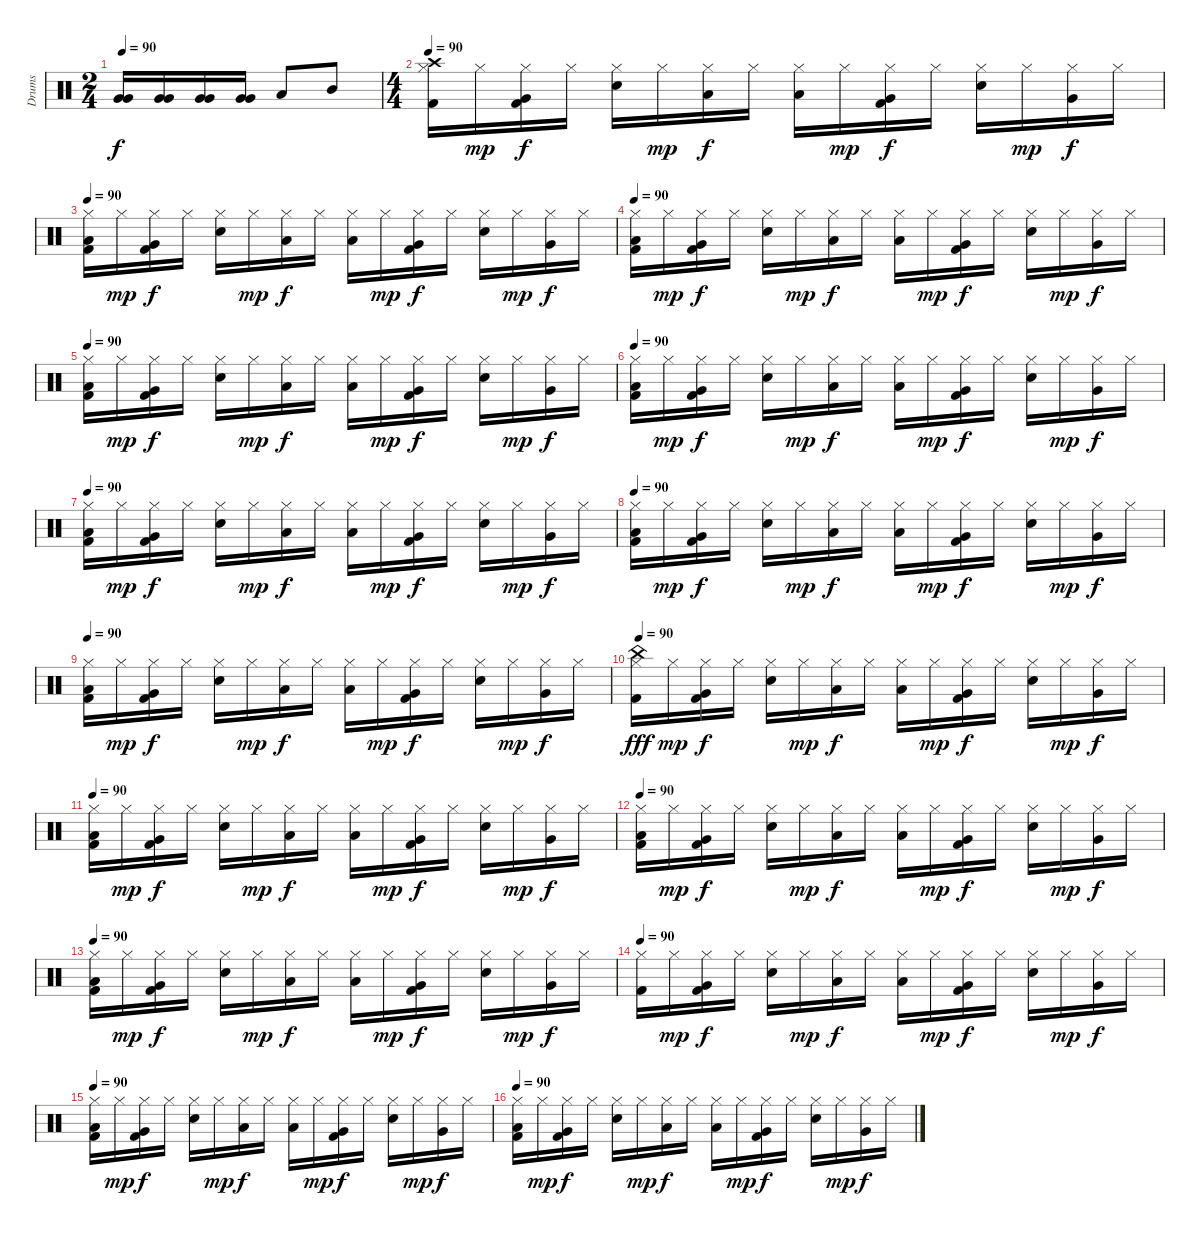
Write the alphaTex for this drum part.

\track ("Drums" "Drums") {instrument percussion}
\staff {score}
\articulation defaults
\ts (2 4)
\tempo 90
\clef neutral
\ks c
("Very Low Tom (hit)" "Very Low Tom (hit)").16{dy f} ("Very Low Tom (hit)" "Very Low Tom (hit)").16 ("Very Low Tom (hit)" "Very Low Tom (hit)").16 ("Very Low Tom (hit)" "Very Low Tom (hit)").16 "Low Tom (hit)".8 "Mid Tom (hit)".8 |
\ts (4 4)
\tempo 90
("Crash high (hit)" "Kick (hit) 2" "Hi-Hat (closed)").16 "Hi-Hat (closed)".16{dy mp} ("Very Low Tom (hit)" "Kick (hit) 2" "Hi-Hat (closed)").16{dy f} "Hi-Hat (closed)".16 ("Snare (hit) 2" "Hi-Hat (closed)").16 "Hi-Hat (closed)".16{dy mp} ("Low Tom (hit)" "Hi-Hat (closed)").16{dy f} "Hi-Hat (closed)".16 ("Low Tom (hit)" "Hi-Hat (closed)").16 "Hi-Hat (closed)".16{dy mp} ("Very Low Tom (hit)" "Kick (hit) 2" "Hi-Hat (closed)").16{dy f} "Hi-Hat (closed)".16 ("Snare (hit) 2" "Hi-Hat (closed)").16 "Hi-Hat (closed)".16{dy mp} ("Very Low Tom (hit)" "Hi-Hat (closed)").16{dy f} "Hi-Hat (closed)".16 |
\tempo 90
("Low Floor Tom (hit)" "Kick (hit) 2" "Hi-Hat (closed)").16 "Hi-Hat (closed)".16{dy mp} ("Very Low Tom (hit)" "Kick (hit) 2" "Hi-Hat (closed)").16{dy f} "Hi-Hat (closed)".16 ("Snare (hit) 2" "Hi-Hat (closed)").16 "Hi-Hat (closed)".16{dy mp} ("Low Tom (hit)" "Hi-Hat (closed)").16{dy f} "Hi-Hat (closed)".16 ("Low Tom (hit)" "Hi-Hat (closed)").16 "Hi-Hat (closed)".16{dy mp} ("Very Low Tom (hit)" "Kick (hit) 2" "Hi-Hat (closed)").16{dy f} "Hi-Hat (closed)".16 ("Snare (hit) 2" "Hi-Hat (closed)").16 "Hi-Hat (closed)".16{dy mp} ("Very Low Tom (hit)" "Hi-Hat (closed)").16{dy f} "Hi-Hat (closed)".16 |
\tempo 90
("Low Floor Tom (hit)" "Kick (hit) 2" "Hi-Hat (closed)").16 "Hi-Hat (closed)".16{dy mp} ("Very Low Tom (hit)" "Kick (hit) 2" "Hi-Hat (closed)").16{dy f} "Hi-Hat (closed)".16 ("Snare (hit) 2" "Hi-Hat (closed)").16 "Hi-Hat (closed)".16{dy mp} ("Low Tom (hit)" "Hi-Hat (closed)").16{dy f} "Hi-Hat (closed)".16 ("Low Tom (hit)" "Hi-Hat (closed)").16 "Hi-Hat (closed)".16{dy mp} ("Very Low Tom (hit)" "Kick (hit) 2" "Hi-Hat (closed)").16{dy f} "Hi-Hat (closed)".16 ("Snare (hit) 2" "Hi-Hat (closed)").16 "Hi-Hat (closed)".16{dy mp} ("Very Low Tom (hit)" "Hi-Hat (closed)").16{dy f} "Hi-Hat (closed)".16 |
\tempo 90
("Low Floor Tom (hit)" "Kick (hit) 2" "Hi-Hat (closed)").16 "Hi-Hat (closed)".16{dy mp} ("Very Low Tom (hit)" "Kick (hit) 2" "Hi-Hat (closed)").16{dy f} "Hi-Hat (closed)".16 ("Snare (hit) 2" "Hi-Hat (closed)").16 "Hi-Hat (closed)".16{dy mp} ("Low Tom (hit)" "Hi-Hat (closed)").16{dy f} "Hi-Hat (closed)".16 ("Low Tom (hit)" "Hi-Hat (closed)").16 "Hi-Hat (closed)".16{dy mp} ("Very Low Tom (hit)" "Kick (hit) 2" "Hi-Hat (closed)").16{dy f} "Hi-Hat (closed)".16 ("Snare (hit) 2" "Hi-Hat (closed)").16 "Hi-Hat (closed)".16{dy mp} ("Very Low Tom (hit)" "Hi-Hat (closed)").16{dy f} "Hi-Hat (closed)".16 |
\tempo 90
("Low Floor Tom (hit)" "Kick (hit) 2" "Hi-Hat (closed)").16 "Hi-Hat (closed)".16{dy mp} ("Very Low Tom (hit)" "Kick (hit) 2" "Hi-Hat (closed)").16{dy f} "Hi-Hat (closed)".16 ("Snare (hit) 2" "Hi-Hat (closed)").16 "Hi-Hat (closed)".16{dy mp} ("Low Tom (hit)" "Hi-Hat (closed)").16{dy f} "Hi-Hat (closed)".16 ("Low Tom (hit)" "Hi-Hat (closed)").16 "Hi-Hat (closed)".16{dy mp} ("Very Low Tom (hit)" "Kick (hit) 2" "Hi-Hat (closed)").16{dy f} "Hi-Hat (closed)".16 ("Snare (hit) 2" "Hi-Hat (closed)").16 "Hi-Hat (closed)".16{dy mp} ("Very Low Tom (hit)" "Hi-Hat (closed)").16{dy f} "Hi-Hat (closed)".16 |
\tempo 90
("Low Floor Tom (hit)" "Kick (hit) 2" "Hi-Hat (closed)").16 "Hi-Hat (closed)".16{dy mp} ("Very Low Tom (hit)" "Kick (hit) 2" "Hi-Hat (closed)").16{dy f} "Hi-Hat (closed)".16 ("Snare (hit) 2" "Hi-Hat (closed)").16 "Hi-Hat (closed)".16{dy mp} ("Low Tom (hit)" "Hi-Hat (closed)").16{dy f} "Hi-Hat (closed)".16 ("Low Tom (hit)" "Hi-Hat (closed)").16 "Hi-Hat (closed)".16{dy mp} ("Very Low Tom (hit)" "Kick (hit) 2" "Hi-Hat (closed)").16{dy f} "Hi-Hat (closed)".16 ("Snare (hit) 2" "Hi-Hat (closed)").16 "Hi-Hat (closed)".16{dy mp} ("Very Low Tom (hit)" "Hi-Hat (closed)").16{dy f} "Hi-Hat (closed)".16 |
\tempo 90
("Low Floor Tom (hit)" "Kick (hit) 2" "Hi-Hat (closed)").16 "Hi-Hat (closed)".16{dy mp} ("Very Low Tom (hit)" "Kick (hit) 2" "Hi-Hat (closed)").16{dy f} "Hi-Hat (closed)".16 ("Snare (hit) 2" "Hi-Hat (closed)").16 "Hi-Hat (closed)".16{dy mp} ("Low Tom (hit)" "Hi-Hat (closed)").16{dy f} "Hi-Hat (closed)".16 ("Low Tom (hit)" "Hi-Hat (closed)").16 "Hi-Hat (closed)".16{dy mp} ("Very Low Tom (hit)" "Kick (hit) 2" "Hi-Hat (closed)").16{dy f} "Hi-Hat (closed)".16 ("Snare (hit) 2" "Hi-Hat (closed)").16 "Hi-Hat (closed)".16{dy mp} ("Very Low Tom (hit)" "Hi-Hat (closed)").16{dy f} "Hi-Hat (closed)".16 |
\tempo 90
("Low Floor Tom (hit)" "Kick (hit) 2" "Hi-Hat (closed)").16 "Hi-Hat (closed)".16{dy mp} ("Very Low Tom (hit)" "Kick (hit) 2" "Hi-Hat (closed)").16{dy f} "Hi-Hat (closed)".16 ("Snare (hit) 2" "Hi-Hat (closed)").16 "Hi-Hat (closed)".16{dy mp} ("Low Tom (hit)" "Hi-Hat (closed)").16{dy f} "Hi-Hat (closed)".16 ("Low Tom (hit)" "Hi-Hat (closed)").16 "Hi-Hat (closed)".16{dy mp} ("Very Low Tom (hit)" "Kick (hit) 2" "Hi-Hat (closed)").16{dy f} "Hi-Hat (closed)".16 ("Snare (hit) 2" "Hi-Hat (closed)").16 "Hi-Hat (closed)".16{dy mp} ("Very Low Tom (hit)" "Hi-Hat (closed)").16{dy f} "Hi-Hat (closed)".16 |
\tempo 90
("China (hit)" "Kick (hit) 2" "Hi-Hat (closed)").16{dy fff} "Hi-Hat (closed)".16{dy mp} ("Very Low Tom (hit)" "Kick (hit) 2" "Hi-Hat (closed)").16{dy f} "Hi-Hat (closed)".16 ("Snare (hit) 2" "Hi-Hat (closed)").16 "Hi-Hat (closed)".16{dy mp} ("Low Tom (hit)" "Hi-Hat (closed)").16{dy f} "Hi-Hat (closed)".16 ("Low Tom (hit)" "Hi-Hat (closed)").16 "Hi-Hat (closed)".16{dy mp} ("Very Low Tom (hit)" "Kick (hit) 2" "Hi-Hat (closed)").16{dy f} "Hi-Hat (closed)".16 ("Snare (hit) 2" "Hi-Hat (closed)").16 "Hi-Hat (closed)".16{dy mp} ("Very Low Tom (hit)" "Hi-Hat (closed)").16{dy f} "Hi-Hat (closed)".16 |
\tempo 90
("Low Floor Tom (hit)" "Kick (hit) 2" "Hi-Hat (closed)").16 "Hi-Hat (closed)".16{dy mp} ("Very Low Tom (hit)" "Kick (hit) 2" "Hi-Hat (closed)").16{dy f} "Hi-Hat (closed)".16 ("Snare (hit) 2" "Hi-Hat (closed)").16 "Hi-Hat (closed)".16{dy mp} ("Low Tom (hit)" "Hi-Hat (closed)").16{dy f} "Hi-Hat (closed)".16 ("Low Tom (hit)" "Hi-Hat (closed)").16 "Hi-Hat (closed)".16{dy mp} ("Very Low Tom (hit)" "Kick (hit) 2" "Hi-Hat (closed)").16{dy f} "Hi-Hat (closed)".16 ("Snare (hit) 2" "Hi-Hat (closed)").16 "Hi-Hat (closed)".16{dy mp} ("Very Low Tom (hit)" "Hi-Hat (closed)").16{dy f} "Hi-Hat (closed)".16 |
\tempo 90
("Low Floor Tom (hit)" "Kick (hit) 2" "Hi-Hat (closed)").16 "Hi-Hat (closed)".16{dy mp} ("Very Low Tom (hit)" "Kick (hit) 2" "Hi-Hat (closed)").16{dy f} "Hi-Hat (closed)".16 ("Snare (hit) 2" "Hi-Hat (closed)").16 "Hi-Hat (closed)".16{dy mp} ("Low Tom (hit)" "Hi-Hat (closed)").16{dy f} "Hi-Hat (closed)".16 ("Low Tom (hit)" "Hi-Hat (closed)").16 "Hi-Hat (closed)".16{dy mp} ("Very Low Tom (hit)" "Kick (hit) 2" "Hi-Hat (closed)").16{dy f} "Hi-Hat (closed)".16 ("Snare (hit) 2" "Hi-Hat (closed)").16 "Hi-Hat (closed)".16{dy mp} ("Very Low Tom (hit)" "Hi-Hat (closed)").16{dy f} "Hi-Hat (closed)".16 |
\tempo 90
("Low Floor Tom (hit)" "Kick (hit) 2" "Hi-Hat (closed)").16 "Hi-Hat (closed)".16{dy mp} ("Very Low Tom (hit)" "Kick (hit) 2" "Hi-Hat (closed)").16{dy f} "Hi-Hat (closed)".16 ("Snare (hit) 2" "Hi-Hat (closed)").16 "Hi-Hat (closed)".16{dy mp} ("Low Tom (hit)" "Hi-Hat (closed)").16{dy f} "Hi-Hat (closed)".16 ("Low Tom (hit)" "Hi-Hat (closed)").16 "Hi-Hat (closed)".16{dy mp} ("Very Low Tom (hit)" "Kick (hit) 2" "Hi-Hat (closed)").16{dy f} "Hi-Hat (closed)".16 ("Snare (hit) 2" "Hi-Hat (closed)").16 "Hi-Hat (closed)".16{dy mp} ("Very Low Tom (hit)" "Hi-Hat (closed)").16{dy f} "Hi-Hat (closed)".16 |
\tempo 90
("Kick (hit) 2" "Hi-Hat (closed)").16 "Hi-Hat (closed)".16{dy mp} ("Very Low Tom (hit)" "Kick (hit) 2" "Hi-Hat (closed)").16{dy f} "Hi-Hat (closed)".16 ("Snare (hit) 2" "Hi-Hat (closed)").16 "Hi-Hat (closed)".16{dy mp} ("Low Tom (hit)" "Hi-Hat (closed)").16{dy f} "Hi-Hat (closed)".16 ("Low Tom (hit)" "Hi-Hat (closed)").16 "Hi-Hat (closed)".16{dy mp} ("Very Low Tom (hit)" "Kick (hit) 2" "Hi-Hat (closed)").16{dy f} "Hi-Hat (closed)".16 ("Snare (hit) 2" "Hi-Hat (closed)").16 "Hi-Hat (closed)".16{dy mp} ("Very Low Tom (hit)" "Hi-Hat (closed)").16{dy f} "Hi-Hat (closed)".16 |
\tempo 90
("Low Floor Tom (hit)" "Kick (hit) 2" "Hi-Hat (closed)").16 "Hi-Hat (closed)".16{dy mp} ("Very Low Tom (hit)" "Kick (hit) 2" "Hi-Hat (closed)").16{dy f} "Hi-Hat (closed)".16 ("Snare (hit) 2" "Hi-Hat (closed)").16 "Hi-Hat (closed)".16{dy mp} ("Low Tom (hit)" "Hi-Hat (closed)").16{dy f} "Hi-Hat (closed)".16 ("Low Tom (hit)" "Hi-Hat (closed)").16 "Hi-Hat (closed)".16{dy mp} ("Very Low Tom (hit)" "Kick (hit) 2" "Hi-Hat (closed)").16{dy f} "Hi-Hat (closed)".16 ("Snare (hit) 2" "Hi-Hat (closed)").16 "Hi-Hat (closed)".16{dy mp} ("Very Low Tom (hit)" "Hi-Hat (closed)").16{dy f} "Hi-Hat (closed)".16 |
\tempo 90
("Low Floor Tom (hit)" "Kick (hit) 2" "Hi-Hat (closed)").16 "Hi-Hat (closed)".16{dy mp} ("Very Low Tom (hit)" "Kick (hit) 2" "Hi-Hat (closed)").16{dy f} "Hi-Hat (closed)".16 ("Snare (hit) 2" "Hi-Hat (closed)").16 "Hi-Hat (closed)".16{dy mp} ("Low Tom (hit)" "Hi-Hat (closed)").16{dy f} "Hi-Hat (closed)".16 ("Low Tom (hit)" "Hi-Hat (closed)").16 "Hi-Hat (closed)".16{dy mp} ("Very Low Tom (hit)" "Kick (hit) 2" "Hi-Hat (closed)").16{dy f} "Hi-Hat (closed)".16 ("Snare (hit) 2" "Hi-Hat (closed)").16 "Hi-Hat (closed)".16{dy mp} ("Very Low Tom (hit)" "Hi-Hat (closed)").16{dy f} "Hi-Hat (closed)".16
